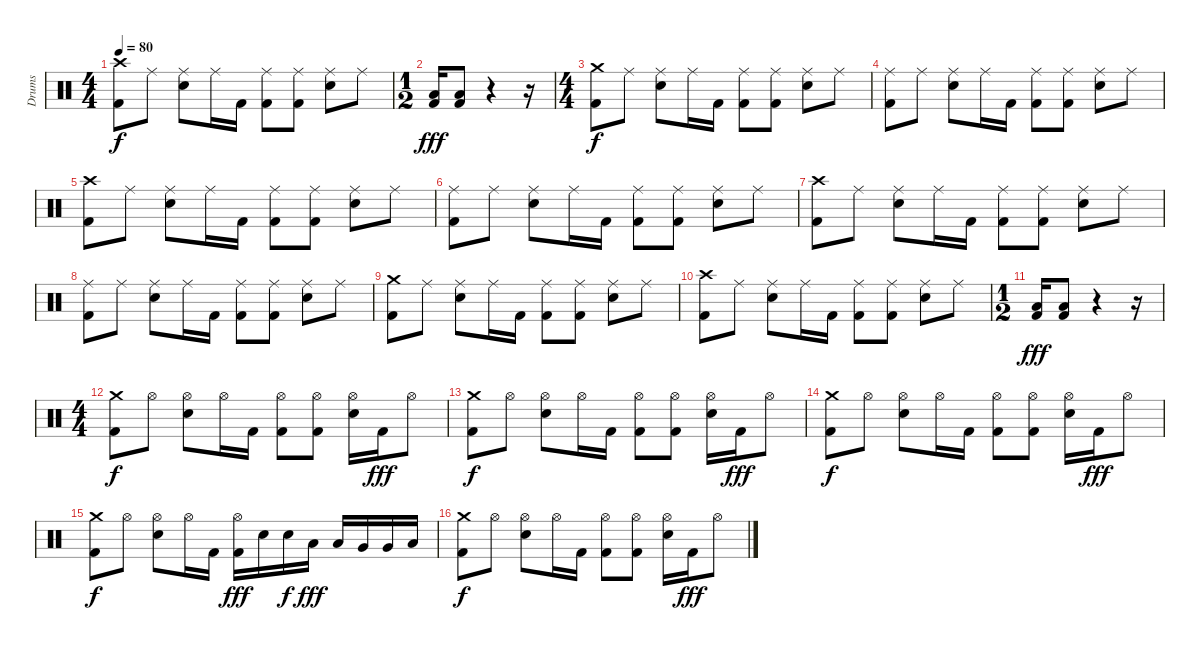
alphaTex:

\track ("Drums" "Drums") {instrument percussion}
\staff {score}
\articulation defaults
\ts (4 4)
\tempo 80
\clef neutral
\ks c
("Crash high (hit)" "Kick (hit) 2").8{dy f} "Ride (middle)".8 ("Ride (middle)" "Snare (hit) 2").8 "Ride (middle)".16 "Kick (hit) 2".16 ("Ride (middle)" "Kick (hit) 2").8 ("Ride (middle)" "Kick (hit) 2").8 ("Ride (middle)" "Snare (hit) 2").8 "Ride (middle)".8 |
\ts (1 2)
("Low Floor Tom (hit)" "Kick (hit) 2").16{dy fff} ("Low Floor Tom (hit)" "Kick (hit) 2").8 r.4 r.16 |
\ts (4 4)
("Crash medium (hit)" "Kick (hit) 2").8{dy f} "Ride (middle)".8 ("Ride (middle)" "Snare (hit) 2").8 "Ride (middle)".16 "Kick (hit) 2".16 ("Ride (middle)" "Kick (hit) 2").8 ("Ride (middle)" "Kick (hit) 2").8 ("Ride (middle)" "Snare (hit) 2").8 "Ride (middle)".8 |
("Ride (middle)" "Kick (hit) 2").8 "Ride (middle)".8 ("Ride (middle)" "Snare (hit) 2").8 "Ride (middle)".16 "Kick (hit) 2".16 ("Ride (middle)" "Kick (hit) 2").8 ("Ride (middle)" "Kick (hit) 2").8 ("Ride (middle)" "Snare (hit) 2").8 "Ride (middle)".8 |
("Crash high (hit)" "Kick (hit) 2").8 "Ride (middle)".8 ("Ride (middle)" "Snare (hit) 2").8 "Ride (middle)".16 "Kick (hit) 2".16 ("Ride (middle)" "Kick (hit) 2").8 ("Ride (middle)" "Kick (hit) 2").8 ("Ride (middle)" "Snare (hit) 2").8 "Ride (middle)".8 |
("Ride (middle)" "Kick (hit) 2").8 "Ride (middle)".8 ("Ride (middle)" "Snare (hit) 2").8 "Ride (middle)".16 "Kick (hit) 2".16 ("Ride (middle)" "Kick (hit) 2").8 ("Ride (middle)" "Kick (hit) 2").8 ("Ride (middle)" "Snare (hit) 2").8 "Ride (middle)".8 |
("Crash high (hit)" "Kick (hit) 2").8 "Ride (middle)".8 ("Ride (middle)" "Snare (hit) 2").8 "Ride (middle)".16 "Kick (hit) 2".16 ("Ride (middle)" "Kick (hit) 2").8 ("Ride (middle)" "Kick (hit) 2").8 ("Ride (middle)" "Snare (hit) 2").8 "Ride (middle)".8 |
("Ride (middle)" "Kick (hit) 2").8 "Ride (middle)".8 ("Ride (middle)" "Snare (hit) 2").8 "Ride (middle)".16 "Kick (hit) 2".16 ("Ride (middle)" "Kick (hit) 2").8 ("Ride (middle)" "Kick (hit) 2").8 ("Ride (middle)" "Snare (hit) 2").8 "Ride (middle)".8 |
("Crash medium (hit)" "Kick (hit) 2").8 "Ride (middle)".8 ("Ride (middle)" "Snare (hit) 2").8 "Ride (middle)".16 "Kick (hit) 2".16 ("Ride (middle)" "Kick (hit) 2").8 ("Ride (middle)" "Kick (hit) 2").8 ("Ride (middle)" "Snare (hit) 2").8 "Ride (middle)".8 |
("Crash high (hit)" "Kick (hit) 2").8 "Ride (middle)".8 ("Ride (middle)" "Snare (hit) 2").8 "Ride (middle)".16 "Kick (hit) 2".16 ("Ride (middle)" "Kick (hit) 2").8 ("Ride (middle)" "Kick (hit) 2").8 ("Ride (middle)" "Snare (hit) 2").8 "Ride (middle)".8 |
\ts (1 2)
("Low Floor Tom (hit)" "Kick (hit) 2").16{dy fff} ("Low Floor Tom (hit)" "Kick (hit) 2").8 r.4 r.16 |
\ts (4 4)
("Crash medium (hit)" "Kick (hit) 2").8{dy f} "Hi-Hat (open)".8 ("Hi-Hat (open)" "Snare (hit) 2").8 "Hi-Hat (open)".16 "Kick (hit) 2".16 ("Hi-Hat (open)" "Kick (hit) 2").8 ("Hi-Hat (open)" "Kick (hit) 2").8 ("Hi-Hat (open)" "Snare (hit) 2").16 "Kick (hit) 2".16{dy fff} "Hi-Hat (open)".8 |
("Crash medium (hit)" "Kick (hit) 2").8{dy f} "Hi-Hat (open)".8 ("Hi-Hat (open)" "Snare (hit) 2").8 "Hi-Hat (open)".16 "Kick (hit) 2".16 ("Hi-Hat (open)" "Kick (hit) 2").8 ("Hi-Hat (open)" "Kick (hit) 2").8 ("Hi-Hat (open)" "Snare (hit) 2").16 "Kick (hit) 2".16{dy fff} "Hi-Hat (open)".8 |
("Crash medium (hit)" "Kick (hit) 2").8{dy f} "Hi-Hat (open)".8 ("Hi-Hat (open)" "Snare (hit) 2").8 "Hi-Hat (open)".16 "Kick (hit) 2".16 ("Hi-Hat (open)" "Kick (hit) 2").8 ("Hi-Hat (open)" "Kick (hit) 2").8 ("Hi-Hat (open)" "Snare (hit) 2").16 "Kick (hit) 2".16{dy fff} "Hi-Hat (open)".8 |
("Crash medium (hit)" "Kick (hit) 2").8{dy f} "Hi-Hat (open)".8 ("Hi-Hat (open)" "Snare (hit) 2").8 "Hi-Hat (open)".16 "Kick (hit) 2".16 ("Hi-Hat (open)" "Kick (hit) 2").16{dy fff} "Snare (hit) 2".16 "Snare (hit) 2".16{dy f} "Low Tom (hit)".16{dy fff} "Low Tom (hit)".16 "Very Low Tom (hit)".16 "Very Low Tom (hit)".16 "Low Floor Tom (hit)".16 |
("Crash medium (hit)" "Kick (hit) 2").8{dy f} "Hi-Hat (open)".8 ("Hi-Hat (open)" "Snare (hit) 2").8 "Hi-Hat (open)".16 "Kick (hit) 2".16 ("Hi-Hat (open)" "Kick (hit) 2").8 ("Hi-Hat (open)" "Kick (hit) 2").8 ("Hi-Hat (open)" "Snare (hit) 2").16 "Kick (hit) 2".16{dy fff} "Hi-Hat (open)".8
